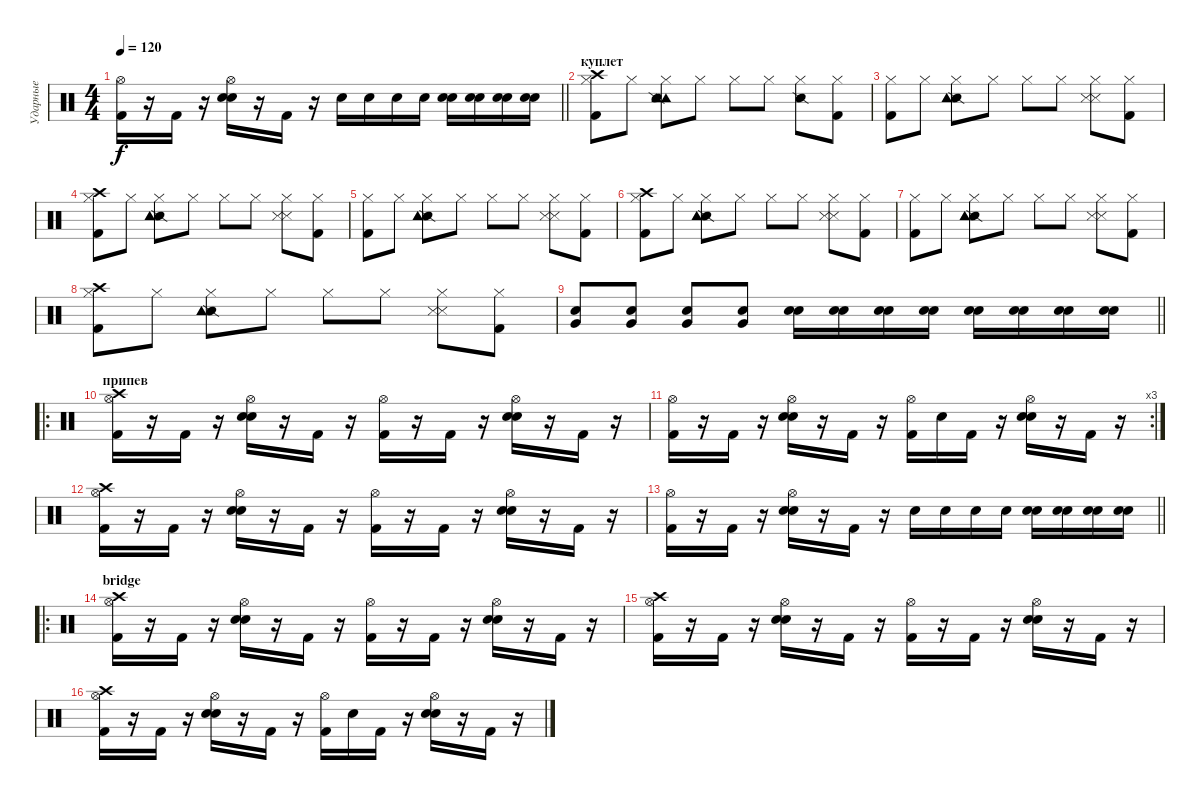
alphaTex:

\track ("Ударные" "Ударные") {instrument percussion}
\staff {score}
\articulation defaults
\ts (4 4)
\tempo 120
\clef neutral
\barLineRight lightlight
\ks c
("Kick (hit) 2" "Hi-Hat (open)").16{dy f} r.16 "Kick (hit) 2".16 r.16 ("Electric Snare (hit)" "Electric Snare (hit)" "Hi-Hat (open)").16 r.16 "Kick (hit) 2".16 r.16 "Electric Snare (hit)".16 "Electric Snare (hit)".16 "Electric Snare (hit)".16 "Electric Snare (hit)".16 ("Electric Snare (hit)" "Electric Snare (hit)").16 ("Electric Snare (hit)" "Electric Snare (hit)").16 ("Electric Snare (hit)" "Electric Snare (hit)").16 ("Electric Snare (hit)" "Electric Snare (hit)").16 |
\section ("" "куплет")
("Crash high (hit)" "Kick (hit) 2" "Hi-Hat (closed)").8 "Hi-Hat (closed)".8 ("Tambourine (hit)" "Tambourine (hit)" "Snare (side stick) 2" "Hi-Hat (closed)").8 "Hi-Hat (closed)".8 "Hi-Hat (closed)".8 "Hi-Hat (closed)".8 ("Snare (side stick) 2" "Hi-Hat (closed)").8 ("Kick (hit) 2" "Hi-Hat (closed)").8 |
("Kick (hit) 2" "Hi-Hat (closed)").8 "Hi-Hat (closed)".8 ("Snare (side stick) 2" "Tambourine (hit)" "Tambourine (hit)" "Hi-Hat (closed)").8 "Hi-Hat (closed)".8 "Hi-Hat (closed)".8 "Hi-Hat (closed)".8 ("Snare (side stick) 3" "Snare (side stick) 3" "Hi-Hat (closed)").8 ("Kick (hit) 2" "Hi-Hat (closed)").8 |
("Crash high (hit)" "Kick (hit) 2" "Hi-Hat (closed)").8 "Hi-Hat (closed)".8 ("Snare (side stick) 2" "Tambourine (hit)" "Tambourine (hit)" "Hi-Hat (closed)").8 "Hi-Hat (closed)".8 "Hi-Hat (closed)".8 "Hi-Hat (closed)".8 ("Snare (side stick) 3" "Snare (side stick) 3" "Hi-Hat (closed)").8 ("Kick (hit) 2" "Hi-Hat (closed)").8 |
("Kick (hit) 2" "Hi-Hat (closed)").8 "Hi-Hat (closed)".8 ("Snare (side stick) 2" "Tambourine (hit)" "Tambourine (hit)" "Hi-Hat (closed)").8 "Hi-Hat (closed)".8 "Hi-Hat (closed)".8 "Hi-Hat (closed)".8 ("Snare (side stick) 3" "Snare (side stick) 3" "Hi-Hat (closed)").8 ("Kick (hit) 2" "Hi-Hat (closed)").8 |
("Crash high (hit)" "Kick (hit) 2" "Hi-Hat (closed)").8 "Hi-Hat (closed)".8 ("Snare (side stick) 2" "Tambourine (hit)" "Tambourine (hit)" "Hi-Hat (closed)").8 "Hi-Hat (closed)".8 "Hi-Hat (closed)".8 "Hi-Hat (closed)".8 ("Snare (side stick) 3" "Snare (side stick) 3" "Hi-Hat (closed)").8 ("Kick (hit) 2" "Hi-Hat (closed)").8 |
("Kick (hit) 2" "Hi-Hat (closed)").8 "Hi-Hat (closed)".8 ("Snare (side stick) 2" "Tambourine (hit)" "Tambourine (hit)" "Hi-Hat (closed)").8 "Hi-Hat (closed)".8 "Hi-Hat (closed)".8 "Hi-Hat (closed)".8 ("Snare (side stick) 3" "Snare (side stick) 3" "Hi-Hat (closed)").8 ("Kick (hit) 2" "Hi-Hat (closed)").8 |
("Crash high (hit)" "Kick (hit) 2" "Hi-Hat (closed)").8 "Hi-Hat (closed)".8 ("Snare (side stick) 2" "Tambourine (hit)" "Tambourine (hit)" "Hi-Hat (closed)").8 "Hi-Hat (closed)".8 "Hi-Hat (closed)".8 "Hi-Hat (closed)".8 ("Snare (side stick) 3" "Snare (side stick) 3" "Hi-Hat (closed)").8 ("Kick (hit) 2" "Hi-Hat (closed)").8 |
\barLineRight lightlight
("Very Low Tom (hit)" "Electric Snare (hit)").8 ("Very Low Tom (hit)" "Electric Snare (hit)").8 ("Very Low Tom (hit)" "Electric Snare (hit)").8 ("Very Low Tom (hit)" "Electric Snare (hit)").8 ("Electric Snare (hit)" "Electric Snare (hit)").16 ("Electric Snare (hit)" "Electric Snare (hit)").16 ("Electric Snare (hit)" "Electric Snare (hit)").16 ("Electric Snare (hit)" "Electric Snare (hit)").16 ("Electric Snare (hit)" "Electric Snare (hit)").16 ("Electric Snare (hit)" "Electric Snare (hit)").16 ("Electric Snare (hit)" "Electric Snare (hit)").16 ("Electric Snare (hit)" "Electric Snare (hit)").16 |
\ro
\section ("" "припев")
("Crash high (hit)" "Kick (hit) 2" "Hi-Hat (open)").16 r.16 "Kick (hit) 2".16 r.16 ("Electric Snare (hit)" "Electric Snare (hit)" "Hi-Hat (open)").16 r.16 "Kick (hit) 2".16 r.16 ("Kick (hit) 2" "Hi-Hat (open)").16 r.16 "Kick (hit) 2".16 r.16 ("Electric Snare (hit)" "Electric Snare (hit)" "Hi-Hat (open)").16 r.16 "Kick (hit) 2".16 r.16 |
\rc 3
("Kick (hit) 2" "Hi-Hat (open)").16 r.16 "Kick (hit) 2".16 r.16 ("Electric Snare (hit)" "Electric Snare (hit)" "Hi-Hat (open)").16 r.16 "Kick (hit) 2".16 r.16 ("Kick (hit) 2" "Hi-Hat (open)").16 "Electric Snare (hit)".16 "Kick (hit) 2".16 r.16 ("Electric Snare (hit)" "Electric Snare (hit)" "Hi-Hat (open)").16 r.16 "Kick (hit) 2".16 r.16 |
("Crash high (hit)" "Kick (hit) 2" "Hi-Hat (open)").16 r.16 "Kick (hit) 2".16 r.16 ("Electric Snare (hit)" "Electric Snare (hit)" "Hi-Hat (open)").16 r.16 "Kick (hit) 2".16 r.16 ("Kick (hit) 2" "Hi-Hat (open)").16 r.16 "Kick (hit) 2".16 r.16 ("Electric Snare (hit)" "Electric Snare (hit)" "Hi-Hat (open)").16 r.16 "Kick (hit) 2".16 r.16 |
\barLineRight lightlight
("Kick (hit) 2" "Hi-Hat (open)").16 r.16 "Kick (hit) 2".16 r.16 ("Electric Snare (hit)" "Electric Snare (hit)" "Hi-Hat (open)").16 r.16 "Kick (hit) 2".16 r.16 "Electric Snare (hit)".16 "Electric Snare (hit)".16 "Electric Snare (hit)".16 "Electric Snare (hit)".16 ("Electric Snare (hit)" "Electric Snare (hit)").16 ("Electric Snare (hit)" "Electric Snare (hit)").16 ("Electric Snare (hit)" "Electric Snare (hit)").16 ("Electric Snare (hit)" "Electric Snare (hit)").16 |
\ro
\section ("" "bridge")
("Crash high (hit)" "Kick (hit) 2" "Hi-Hat (open)").16 r.16 "Kick (hit) 2".16 r.16 ("Electric Snare (hit)" "Electric Snare (hit)" "Hi-Hat (open)").16 r.16 "Kick (hit) 2".16 r.16 ("Kick (hit) 2" "Hi-Hat (open)").16 r.16 "Kick (hit) 2".16 r.16 ("Electric Snare (hit)" "Electric Snare (hit)" "Hi-Hat (open)").16 r.16 "Kick (hit) 2".16 r.16 |
("Crash high (hit)" "Kick (hit) 2" "Hi-Hat (open)").16 r.16 "Kick (hit) 2".16 r.16 ("Electric Snare (hit)" "Electric Snare (hit)" "Hi-Hat (open)").16 r.16 "Kick (hit) 2".16 r.16 ("Kick (hit) 2" "Hi-Hat (open)").16 r.16 "Kick (hit) 2".16 r.16 ("Electric Snare (hit)" "Electric Snare (hit)" "Hi-Hat (open)").16 r.16 "Kick (hit) 2".16 r.16 |
("Crash high (hit)" "Kick (hit) 2" "Hi-Hat (open)").16 r.16 "Kick (hit) 2".16 r.16 ("Electric Snare (hit)" "Electric Snare (hit)" "Hi-Hat (open)").16 r.16 "Kick (hit) 2".16 r.16 ("Kick (hit) 2" "Hi-Hat (open)").16 "Electric Snare (hit)".16 "Kick (hit) 2".16 r.16 ("Electric Snare (hit)" "Electric Snare (hit)" "Hi-Hat (open)").16 r.16 "Kick (hit) 2".16 r.16
